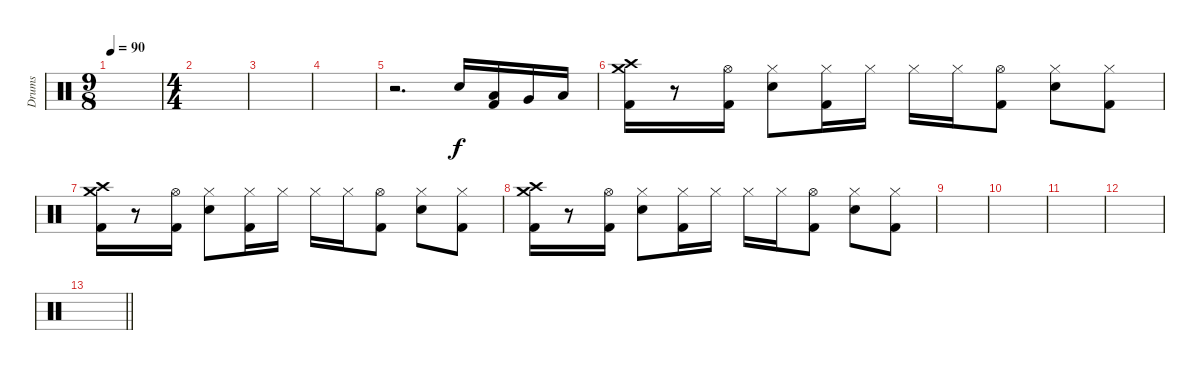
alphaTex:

\track ("Drums" "Drums") {instrument percussion}
\staff {score}
\articulation defaults
\ts (9 8)
\tempo 90
\clef neutral
\ks c
|
\ts (4 4)
|
|
|
r.2{d} "Electric Snare (hit)".16 ("Low Tom (hit)" "Kick (hit) 2").16 "Very Low Tom (hit)".16 "Low Floor Tom (hit)".16 |
("Crash high (hit)" "Crash medium (hit)" "Kick (hit) 2").16 r.8 ("Hi-Hat (open)" "Kick (hit) 2").16 ("Hi-Hat (closed)" "Electric Snare (hit)").8 ("Hi-Hat (closed)" "Kick (hit) 2").16 "Hi-Hat (closed)".16 "Hi-Hat (closed)".16 "Hi-Hat (closed)".16 ("Hi-Hat (open)" "Kick (hit) 2").8 ("Hi-Hat (closed)" "Electric Snare (hit)").8 ("Hi-Hat (closed)" "Kick (hit) 2").8 |
("Crash high (hit)" "Crash medium (hit)" "Kick (hit) 2").16 r.8 ("Hi-Hat (open)" "Kick (hit) 2").16 ("Hi-Hat (closed)" "Electric Snare (hit)").8 ("Hi-Hat (closed)" "Kick (hit) 2").16 "Hi-Hat (closed)".16 "Hi-Hat (closed)".16 "Hi-Hat (closed)".16 ("Hi-Hat (open)" "Kick (hit) 2").8 ("Hi-Hat (closed)" "Electric Snare (hit)").8 ("Hi-Hat (closed)" "Kick (hit) 2").8 |
("Crash high (hit)" "Crash medium (hit)" "Kick (hit) 2").16 r.8 ("Hi-Hat (open)" "Kick (hit) 2").16 ("Hi-Hat (closed)" "Electric Snare (hit)").8 ("Hi-Hat (closed)" "Kick (hit) 2").16 "Hi-Hat (closed)".16 "Hi-Hat (closed)".16 "Hi-Hat (closed)".16 ("Hi-Hat (open)" "Kick (hit) 2").8 ("Hi-Hat (closed)" "Electric Snare (hit)").8 ("Hi-Hat (closed)" "Kick (hit) 2").8 |
|
|
|
|
\barLineRight lightlight
